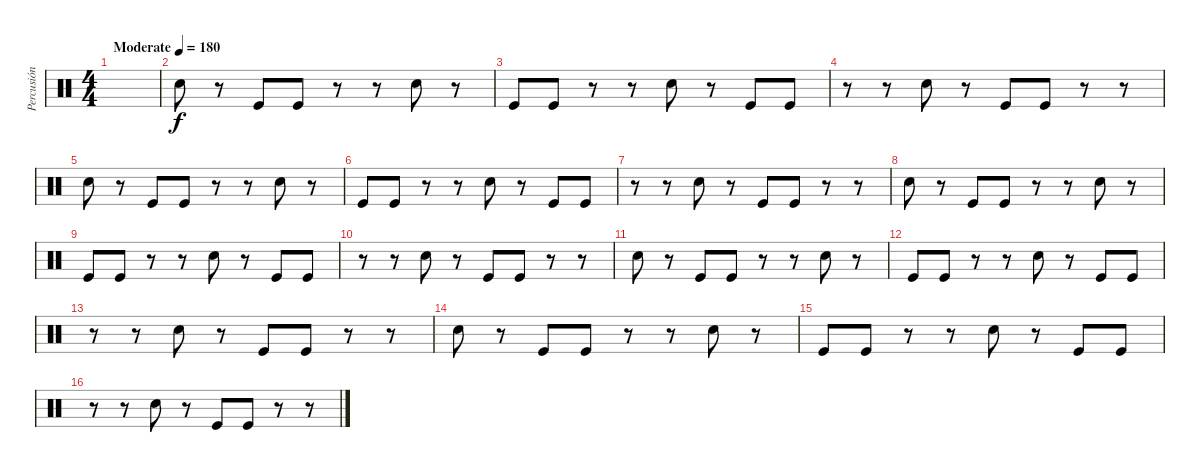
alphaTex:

\track ("Percusión" "Percusión") {instrument percussion}
\staff {score}
\articulation defaults
\ts (4 4)
\tempo (180 "Moderate")
\clef neutral
\ks c
|
"Snare (hit) 2".8 r.8 "Kick (hit)".8 "Kick (hit)".8 r.8 r.8 "Snare (hit) 2".8 r.8 |
"Kick (hit)".8 "Kick (hit)".8 r.8 r.8 "Snare (hit) 2".8 r.8 "Kick (hit)".8 "Kick (hit)".8 |
r.8 r.8 "Snare (hit) 2".8 r.8 "Kick (hit)".8 "Kick (hit)".8 r.8 r.8 |
"Snare (hit) 2".8 r.8 "Kick (hit)".8 "Kick (hit)".8 r.8 r.8 "Snare (hit) 2".8 r.8 |
"Kick (hit)".8 "Kick (hit)".8 r.8 r.8 "Snare (hit) 2".8 r.8 "Kick (hit)".8 "Kick (hit)".8 |
r.8 r.8 "Snare (hit) 2".8 r.8 "Kick (hit)".8 "Kick (hit)".8 r.8 r.8 |
"Snare (hit) 2".8 r.8 "Kick (hit)".8 "Kick (hit)".8 r.8 r.8 "Snare (hit) 2".8 r.8 |
"Kick (hit)".8 "Kick (hit)".8 r.8 r.8 "Snare (hit) 2".8 r.8 "Kick (hit)".8 "Kick (hit)".8 |
r.8 r.8 "Snare (hit) 2".8 r.8 "Kick (hit)".8 "Kick (hit)".8 r.8 r.8 |
"Snare (hit) 2".8 r.8 "Kick (hit)".8 "Kick (hit)".8 r.8 r.8 "Snare (hit) 2".8 r.8 |
"Kick (hit)".8 "Kick (hit)".8 r.8 r.8 "Snare (hit) 2".8 r.8 "Kick (hit)".8 "Kick (hit)".8 |
r.8 r.8 "Snare (hit) 2".8 r.8 "Kick (hit)".8 "Kick (hit)".8 r.8 r.8 |
"Snare (hit) 2".8 r.8 "Kick (hit)".8 "Kick (hit)".8 r.8 r.8 "Snare (hit) 2".8 r.8 |
"Kick (hit)".8 "Kick (hit)".8 r.8 r.8 "Snare (hit) 2".8 r.8 "Kick (hit)".8 "Kick (hit)".8 |
r.8 r.8 "Snare (hit) 2".8 r.8 "Kick (hit)".8 "Kick (hit)".8 r.8 r.8
